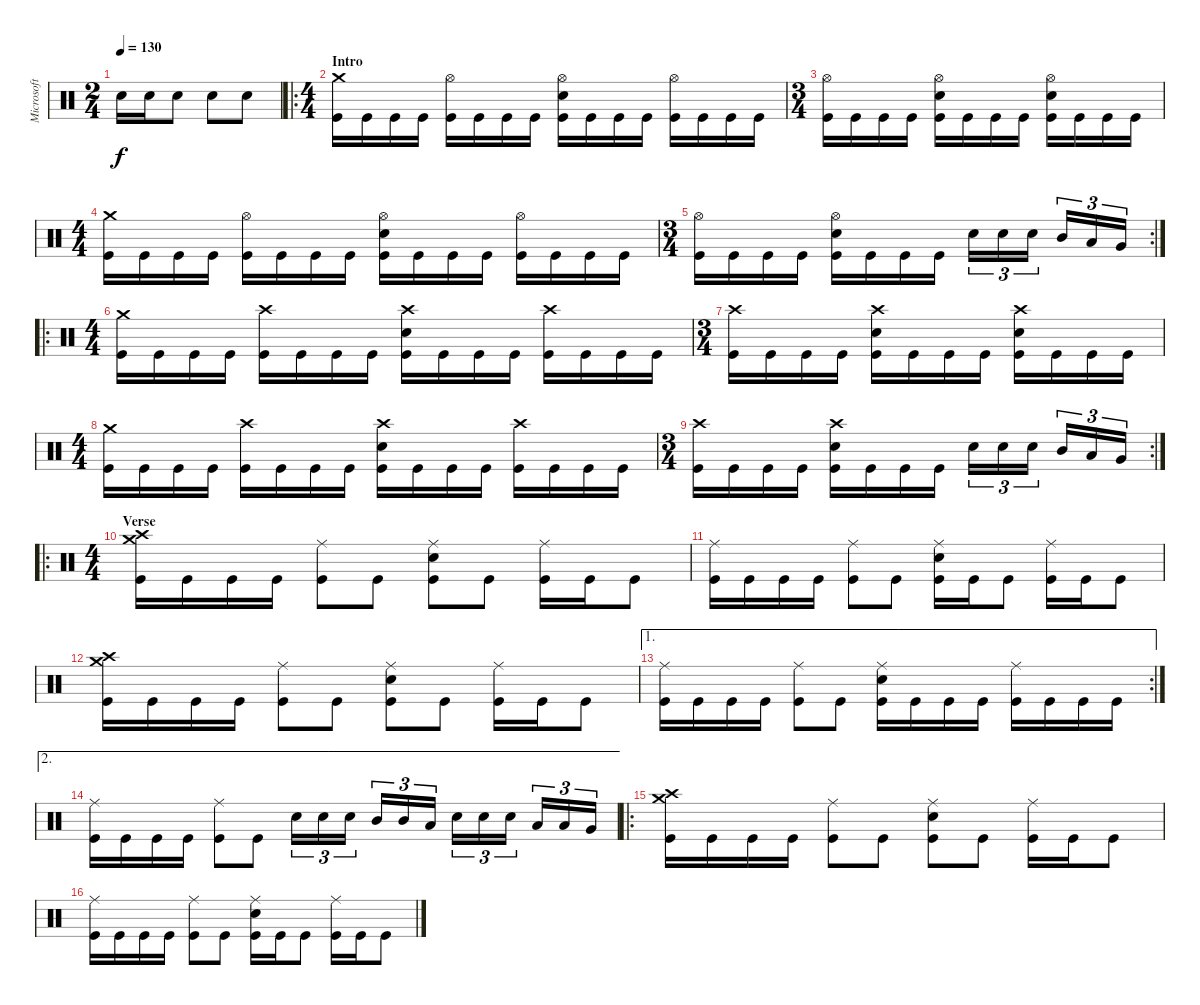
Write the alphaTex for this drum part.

\track ("Microsoft S.A.M." "Microsoft ") {instrument percussion}
\staff {score}
\articulation defaults
\ts (2 4)
\tempo 130
\clef neutral
\ks c "Snare (hit) 2".16{dy f} "Snare (hit) 2".16 "Snare (hit) 2".8 "Snare (hit) 2".8 "Snare (hit) 2".8
|
\ro
\ts (4 4)
\section ("" "Intro")
("Kick (hit)" "Crash medium (hit)").16 "Kick (hit)".16 "Kick (hit)".16 "Kick (hit)".16 ("Kick (hit)" "Hi-Hat (open)").16 "Kick (hit)".16 "Kick (hit)".16 "Kick (hit)".16 ("Kick (hit)" "Hi-Hat (open)" "Snare (hit) 2").16 "Kick (hit)".16 "Kick (hit)".16 "Kick (hit)".16 ("Kick (hit)" "Hi-Hat (open)").16 "Kick (hit)".16 "Kick (hit)".16 "Kick (hit)".16 |
\ts (3 4)
("Kick (hit)" "Hi-Hat (open)").16 "Kick (hit)".16 "Kick (hit)".16 "Kick (hit)".16 ("Kick (hit)" "Hi-Hat (open)" "Snare (hit) 2").16 "Kick (hit)".16 "Kick (hit)".16 "Kick (hit)".16 ("Kick (hit)" "Hi-Hat (open)" "Snare (hit) 2").16 "Kick (hit)".16 "Kick (hit)".16 "Kick (hit)".16 |
\ts (4 4)
("Kick (hit)" "Crash medium (hit)").16 "Kick (hit)".16 "Kick (hit)".16 "Kick (hit)".16 ("Kick (hit)" "Hi-Hat (open)").16 "Kick (hit)".16 "Kick (hit)".16 "Kick (hit)".16 ("Kick (hit)" "Hi-Hat (open)" "Snare (hit) 2").16 "Kick (hit)".16 "Kick (hit)".16 "Kick (hit)".16 ("Kick (hit)" "Hi-Hat (open)").16 "Kick (hit)".16 "Kick (hit)".16 "Kick (hit)".16 |
\rc 2
\ts (3 4)
("Kick (hit)" "Hi-Hat (open)").16 "Kick (hit)".16 "Kick (hit)".16 "Kick (hit)".16 ("Kick (hit)" "Hi-Hat (open)" "Snare (hit) 2").16 "Kick (hit)".16 "Kick (hit)".16 "Kick (hit)".16 "Snare (hit) 2".16{tu (3 2)} "Snare (hit) 2".16{tu (3 2)} "Snare (hit) 2".16{tu (3 2)} "Mid Tom (hit)".16{tu (3 2)} "Low Tom (hit)".16{tu (3 2)} "Very Low Tom (hit)".16{tu (3 2)} |
\ro
\ts (4 4)
("Kick (hit)" "Crash medium (hit)").16 "Kick (hit)".16 "Kick (hit)".16 "Kick (hit)".16 ("Kick (hit)" "Crash high (hit)").16 "Kick (hit)".16 "Kick (hit)".16 "Kick (hit)".16 ("Kick (hit)" "Snare (hit) 2" "Crash high (hit)").16 "Kick (hit)".16 "Kick (hit)".16 "Kick (hit)".16 ("Kick (hit)" "Crash high (hit)").16 "Kick (hit)".16 "Kick (hit)".16 "Kick (hit)".16 |
\ts (3 4)
("Kick (hit)" "Crash high (hit)").16 "Kick (hit)".16 "Kick (hit)".16 "Kick (hit)".16 ("Kick (hit)" "Crash high (hit)" "Snare (hit) 2").16 "Kick (hit)".16 "Kick (hit)".16 "Kick (hit)".16 ("Kick (hit)" "Snare (hit) 2" "Crash high (hit)").16 "Kick (hit)".16 "Kick (hit)".16 "Kick (hit)".16 |
\ts (4 4)
("Kick (hit)" "Crash medium (hit)").16 "Kick (hit)".16 "Kick (hit)".16 "Kick (hit)".16 ("Kick (hit)" "Crash high (hit)").16 "Kick (hit)".16 "Kick (hit)".16 "Kick (hit)".16 ("Kick (hit)" "Snare (hit) 2" "Crash high (hit)").16 "Kick (hit)".16 "Kick (hit)".16 "Kick (hit)".16 ("Kick (hit)" "Crash high (hit)").16 "Kick (hit)".16 "Kick (hit)".16 "Kick (hit)".16 |
\rc 2
\ts (3 4)
("Kick (hit)" "Crash high (hit)").16 "Kick (hit)".16 "Kick (hit)".16 "Kick (hit)".16 ("Kick (hit)" "Crash high (hit)" "Snare (hit) 2").16 "Kick (hit)".16 "Kick (hit)".16 "Kick (hit)".16 "Snare (hit) 2".16{tu (3 2)} "Snare (hit) 2".16{tu (3 2)} "Snare (hit) 2".16{tu (3 2)} "Mid Tom (hit)".16{tu (3 2)} "Low Tom (hit)".16{tu (3 2)} "Very Low Tom (hit)".16{tu (3 2)} |
\ro
\ts (4 4)
\section ("" "Verse")
("Kick (hit)" "Crash medium (hit)" "Crash high (hit)").16 "Kick (hit)".16 "Kick (hit)".16 "Kick (hit)".16 ("Kick (hit)" "Ride (middle)").8 "Kick (hit)".8 ("Kick (hit)" "Ride (middle)" "Snare (hit) 2").8 "Kick (hit)".8 ("Kick (hit)" "Ride (middle)").16 "Kick (hit)".16 "Kick (hit)".8 |
("Kick (hit)" "Ride (middle)").16 "Kick (hit)".16 "Kick (hit)".16 "Kick (hit)".16 ("Kick (hit)" "Ride (middle)").8 "Kick (hit)".8 ("Kick (hit)" "Ride (middle)" "Snare (hit) 2").16 "Kick (hit)".16 "Kick (hit)".8 ("Kick (hit)" "Ride (middle)").16 "Kick (hit)".16 "Kick (hit)".8 |
("Kick (hit)" "Crash medium (hit)" "Crash high (hit)").16 "Kick (hit)".16 "Kick (hit)".16 "Kick (hit)".16 ("Kick (hit)" "Ride (middle)").8 "Kick (hit)".8 ("Kick (hit)" "Ride (middle)" "Snare (hit) 2").8 "Kick (hit)".8 ("Kick (hit)" "Ride (middle)").16 "Kick (hit)".16 "Kick (hit)".8 |
\ae 1
\rc 2
("Kick (hit)" "Ride (middle)").16 "Kick (hit)".16 "Kick (hit)".16 "Kick (hit)".16 ("Kick (hit)" "Ride (middle)").8 "Kick (hit)".8 ("Kick (hit)" "Ride (middle)" "Snare (hit) 2").16 "Kick (hit)".16 "Kick (hit)".16 "Kick (hit)".16 ("Kick (hit)" "Ride (middle)").16 "Kick (hit)".16 "Kick (hit)".16 "Kick (hit)".16 |
\ae 2
("Kick (hit)" "Ride (middle)").16 "Kick (hit)".16 "Kick (hit)".16 "Kick (hit)".16 ("Kick (hit)" "Ride (middle)").8 "Kick (hit)".8 "Snare (hit) 2".16{tu (3 2)} "Snare (hit) 2".16{tu (3 2)} "Snare (hit) 2".16{tu (3 2)} "Mid Tom (hit)".16{tu (3 2)} "Mid Tom (hit)".16{tu (3 2)} "Low Tom (hit)".16{tu (3 2)} "Snare (hit) 2".16{tu (3 2)} "Snare (hit) 2".16{tu (3 2)} "Snare (hit) 2".16{tu (3 2)} "Low Tom (hit)".16{tu (3 2)} "Low Tom (hit)".16{tu (3 2)} "Very Low Tom (hit)".16{tu (3 2)} |
\ro
("Kick (hit)" "Crash medium (hit)" "Crash high (hit)").16 "Kick (hit)".16 "Kick (hit)".16 "Kick (hit)".16 ("Kick (hit)" "Ride (middle)").8 "Kick (hit)".8 ("Kick (hit)" "Ride (middle)" "Snare (hit) 2").8 "Kick (hit)".8 ("Kick (hit)" "Ride (middle)").16 "Kick (hit)".16 "Kick (hit)".8 |
("Kick (hit)" "Ride (middle)").16 "Kick (hit)".16 "Kick (hit)".16 "Kick (hit)".16 ("Kick (hit)" "Ride (middle)").8 "Kick (hit)".8 ("Kick (hit)" "Ride (middle)" "Snare (hit) 2").16 "Kick (hit)".16 "Kick (hit)".8 ("Kick (hit)" "Ride (middle)").16 "Kick (hit)".16 "Kick (hit)".8
